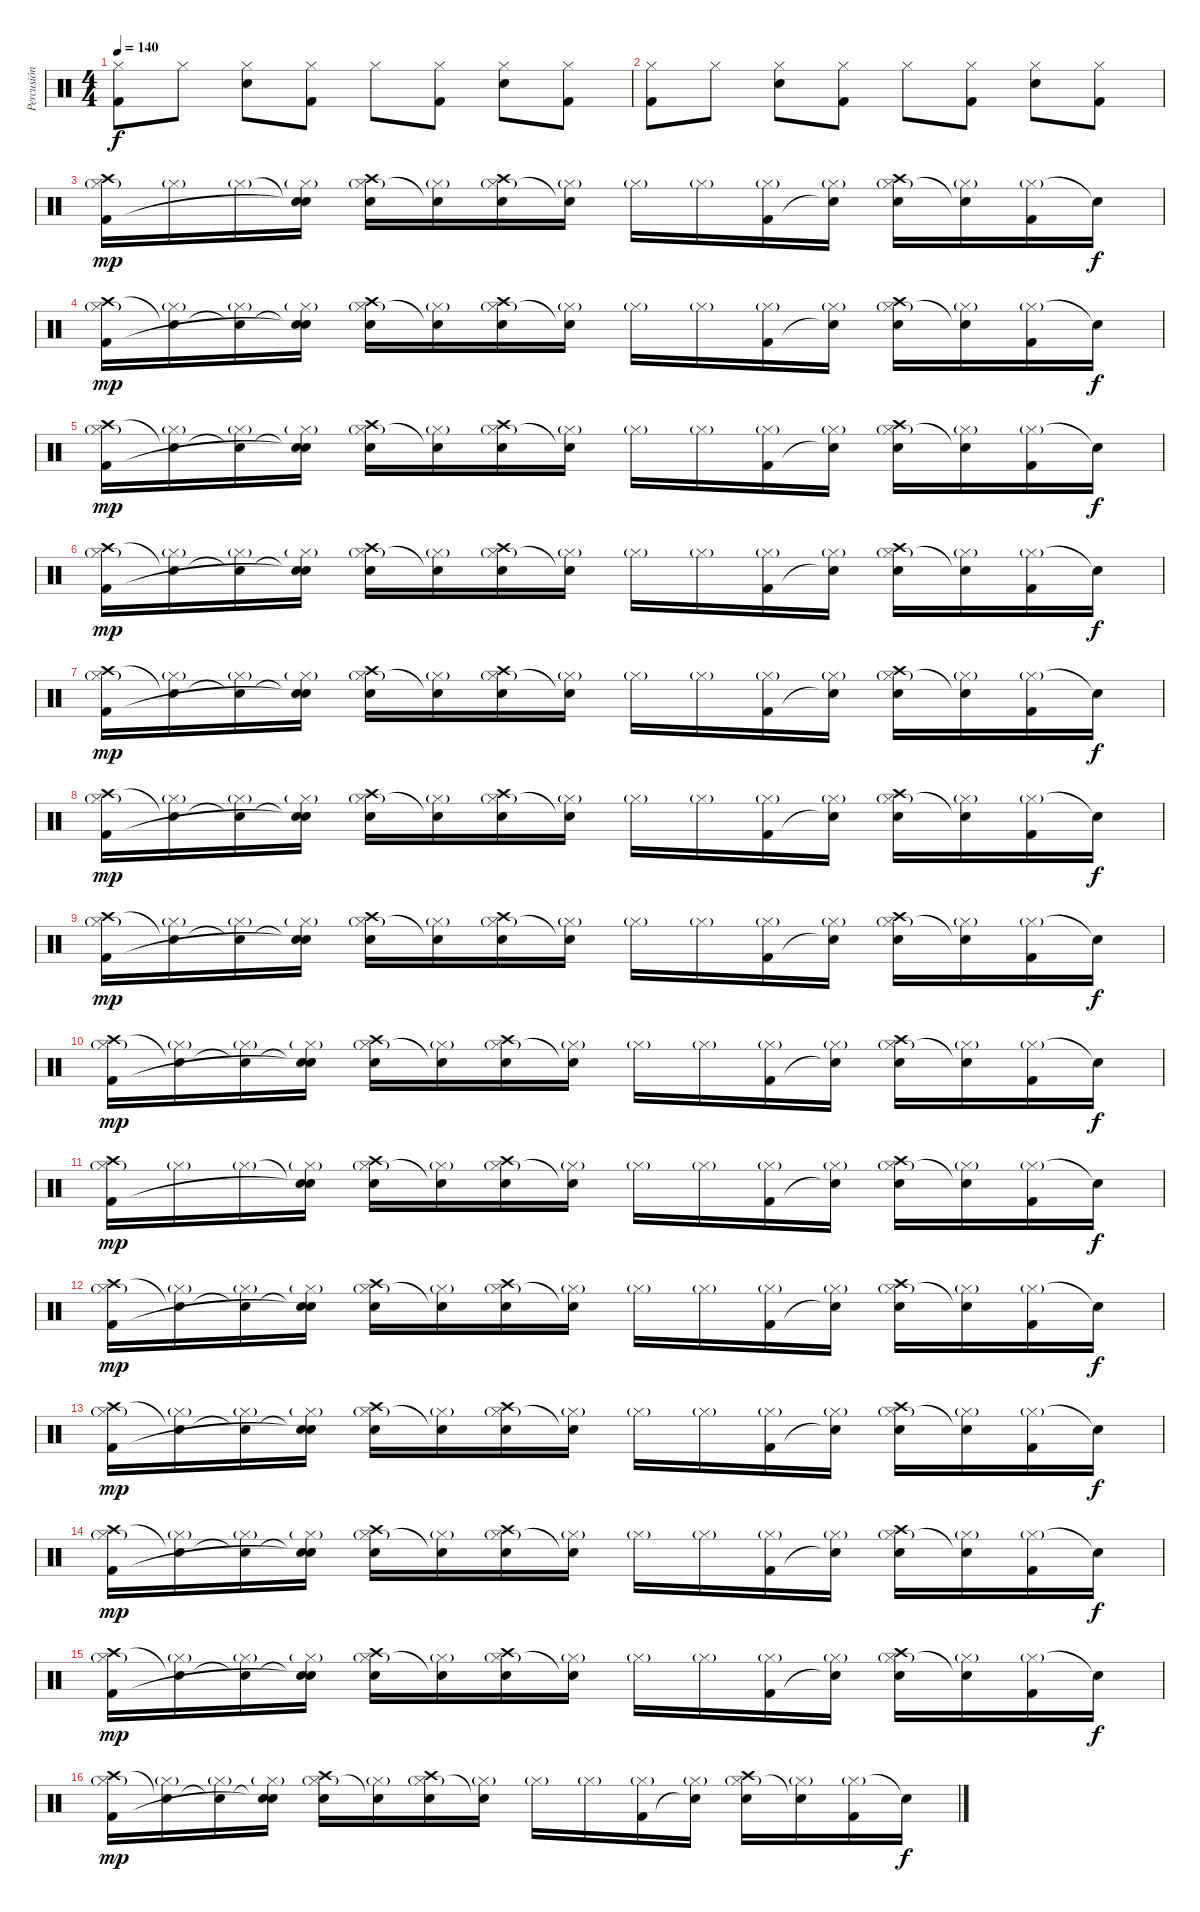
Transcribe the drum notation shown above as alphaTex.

\track ("Percusión" "Percusión") {instrument percussion}
\staff {score}
\articulation defaults
\ts (4 4)
\tempo 140
\clef neutral
\ks c
("Hi-Hat (closed)" "Kick (hit) 2").8{dy f} "Hi-Hat (closed)".8 ("Hi-Hat (closed)" "Electric Snare (hit)").8 ("Hi-Hat (closed)" "Kick (hit) 2").8 "Hi-Hat (closed)".8 ("Hi-Hat (closed)" "Kick (hit) 2").8 ("Hi-Hat (closed)" "Electric Snare (hit)").8 ("Hi-Hat (closed)" "Kick (hit) 2").8 |
("Hi-Hat (closed)" "Kick (hit) 2").8 "Hi-Hat (closed)".8 ("Hi-Hat (closed)" "Electric Snare (hit)").8 ("Hi-Hat (closed)" "Kick (hit) 2").8 "Hi-Hat (closed)".8 ("Hi-Hat (closed)" "Kick (hit) 2").8 ("Hi-Hat (closed)" "Electric Snare (hit)").8 ("Hi-Hat (closed)" "Kick (hit) 2").8 |
("Crash high (hit)" "Hi-Hat (closed)"{g} "Kick (hit) 2").16{dy mp} "Hi-Hat (closed)"{g}.16 "Hi-Hat (closed)"{g}.16 ("Snare (hit)"{t} "Hi-Hat (closed)"{g} "Snare (hit)"{t}).16 ("Crash high (hit)" "Hi-Hat (closed)"{g} "Electric Snare (hit)").16 ("Hi-Hat (closed)"{g} "Snare (hit)"{t}).16 ("Crash high (hit)" "Hi-Hat (closed)"{g} "Electric Snare (hit)").16 ("Hi-Hat (closed)"{g} "Snare (hit)"{t}).16 "Hi-Hat (closed)"{g}.16 "Hi-Hat (closed)"{g}.16 ("Hi-Hat (closed)"{g} "Kick (hit) 2").16 ("Hi-Hat (closed)"{g} "Snare (hit)"{t}).16 ("Crash high (hit)" "Hi-Hat (closed)"{g} "Electric Snare (hit)").16 ("Hi-Hat (closed)"{g} "Snare (hit)"{t}).16 ("Hi-Hat (closed)"{g} "Kick (hit) 2").16 "Snare (hit)"{t}.16{dy f} |
("Crash high (hit)" "Hi-Hat (closed)"{g} "Kick (hit) 2").16{dy mp} ("Snare (hit)"{t} "Hi-Hat (closed)"{g}).16 ("Snare (hit)"{t} "Hi-Hat (closed)"{g}).16 ("Snare (hit)"{t} "Hi-Hat (closed)"{g} "Snare (hit)"{t}).16 ("Crash high (hit)" "Hi-Hat (closed)"{g} "Electric Snare (hit)").16 ("Hi-Hat (closed)"{g} "Snare (hit)"{t}).16 ("Crash high (hit)" "Hi-Hat (closed)"{g} "Electric Snare (hit)").16 ("Hi-Hat (closed)"{g} "Snare (hit)"{t}).16 "Hi-Hat (closed)"{g}.16 "Hi-Hat (closed)"{g}.16 ("Hi-Hat (closed)"{g} "Kick (hit) 2").16 ("Hi-Hat (closed)"{g} "Snare (hit)"{t}).16 ("Crash high (hit)" "Hi-Hat (closed)"{g} "Electric Snare (hit)").16 ("Hi-Hat (closed)"{g} "Snare (hit)"{t}).16 ("Hi-Hat (closed)"{g} "Kick (hit) 2").16 "Snare (hit)"{t}.16{dy f} |
("Crash high (hit)" "Hi-Hat (closed)"{g} "Kick (hit) 2").16{dy mp} ("Snare (hit)"{t} "Hi-Hat (closed)"{g}).16 ("Snare (hit)"{t} "Hi-Hat (closed)"{g}).16 ("Snare (hit)"{t} "Hi-Hat (closed)"{g} "Snare (hit)"{t}).16 ("Crash high (hit)" "Hi-Hat (closed)"{g} "Electric Snare (hit)").16 ("Hi-Hat (closed)"{g} "Snare (hit)"{t}).16 ("Crash high (hit)" "Hi-Hat (closed)"{g} "Electric Snare (hit)").16 ("Hi-Hat (closed)"{g} "Snare (hit)"{t}).16 "Hi-Hat (closed)"{g}.16 "Hi-Hat (closed)"{g}.16 ("Hi-Hat (closed)"{g} "Kick (hit) 2").16 ("Hi-Hat (closed)"{g} "Snare (hit)"{t}).16 ("Crash high (hit)" "Hi-Hat (closed)"{g} "Electric Snare (hit)").16 ("Hi-Hat (closed)"{g} "Snare (hit)"{t}).16 ("Hi-Hat (closed)"{g} "Kick (hit) 2").16 "Snare (hit)"{t}.16{dy f} |
("Crash high (hit)" "Hi-Hat (closed)"{g} "Kick (hit) 2").16{dy mp} ("Snare (hit)"{t} "Hi-Hat (closed)"{g}).16 ("Snare (hit)"{t} "Hi-Hat (closed)"{g}).16 ("Snare (hit)"{t} "Hi-Hat (closed)"{g} "Snare (hit)"{t}).16 ("Crash high (hit)" "Hi-Hat (closed)"{g} "Electric Snare (hit)").16 ("Hi-Hat (closed)"{g} "Snare (hit)"{t}).16 ("Crash high (hit)" "Hi-Hat (closed)"{g} "Electric Snare (hit)").16 ("Hi-Hat (closed)"{g} "Snare (hit)"{t}).16 "Hi-Hat (closed)"{g}.16 "Hi-Hat (closed)"{g}.16 ("Hi-Hat (closed)"{g} "Kick (hit) 2").16 ("Hi-Hat (closed)"{g} "Snare (hit)"{t}).16 ("Crash high (hit)" "Hi-Hat (closed)"{g} "Electric Snare (hit)").16 ("Hi-Hat (closed)"{g} "Snare (hit)"{t}).16 ("Hi-Hat (closed)"{g} "Kick (hit) 2").16 "Snare (hit)"{t}.16{dy f} |
("Crash high (hit)" "Hi-Hat (closed)"{g} "Kick (hit) 2").16{dy mp} ("Snare (hit)"{t} "Hi-Hat (closed)"{g}).16 ("Snare (hit)"{t} "Hi-Hat (closed)"{g}).16 ("Snare (hit)"{t} "Hi-Hat (closed)"{g} "Snare (hit)"{t}).16 ("Crash high (hit)" "Hi-Hat (closed)"{g} "Electric Snare (hit)").16 ("Hi-Hat (closed)"{g} "Snare (hit)"{t}).16 ("Crash high (hit)" "Hi-Hat (closed)"{g} "Electric Snare (hit)").16 ("Hi-Hat (closed)"{g} "Snare (hit)"{t}).16 "Hi-Hat (closed)"{g}.16 "Hi-Hat (closed)"{g}.16 ("Hi-Hat (closed)"{g} "Kick (hit) 2").16 ("Hi-Hat (closed)"{g} "Snare (hit)"{t}).16 ("Crash high (hit)" "Hi-Hat (closed)"{g} "Electric Snare (hit)").16 ("Hi-Hat (closed)"{g} "Snare (hit)"{t}).16 ("Hi-Hat (closed)"{g} "Kick (hit) 2").16 "Snare (hit)"{t}.16{dy f} |
("Crash high (hit)" "Hi-Hat (closed)"{g} "Kick (hit) 2").16{dy mp} ("Snare (hit)"{t} "Hi-Hat (closed)"{g}).16 ("Snare (hit)"{t} "Hi-Hat (closed)"{g}).16 ("Snare (hit)"{t} "Hi-Hat (closed)"{g} "Snare (hit)"{t}).16 ("Crash high (hit)" "Hi-Hat (closed)"{g} "Electric Snare (hit)").16 ("Hi-Hat (closed)"{g} "Snare (hit)"{t}).16 ("Crash high (hit)" "Hi-Hat (closed)"{g} "Electric Snare (hit)").16 ("Hi-Hat (closed)"{g} "Snare (hit)"{t}).16 "Hi-Hat (closed)"{g}.16 "Hi-Hat (closed)"{g}.16 ("Hi-Hat (closed)"{g} "Kick (hit) 2").16 ("Hi-Hat (closed)"{g} "Snare (hit)"{t}).16 ("Crash high (hit)" "Hi-Hat (closed)"{g} "Electric Snare (hit)").16 ("Hi-Hat (closed)"{g} "Snare (hit)"{t}).16 ("Hi-Hat (closed)"{g} "Kick (hit) 2").16 "Snare (hit)"{t}.16{dy f} |
("Crash high (hit)" "Hi-Hat (closed)"{g} "Kick (hit) 2").16{dy mp} ("Snare (hit)"{t} "Hi-Hat (closed)"{g}).16 ("Snare (hit)"{t} "Hi-Hat (closed)"{g}).16 ("Snare (hit)"{t} "Hi-Hat (closed)"{g} "Snare (hit)"{t}).16 ("Crash high (hit)" "Hi-Hat (closed)"{g} "Electric Snare (hit)").16 ("Hi-Hat (closed)"{g} "Snare (hit)"{t}).16 ("Crash high (hit)" "Hi-Hat (closed)"{g} "Electric Snare (hit)").16 ("Hi-Hat (closed)"{g} "Snare (hit)"{t}).16 "Hi-Hat (closed)"{g}.16 "Hi-Hat (closed)"{g}.16 ("Hi-Hat (closed)"{g} "Kick (hit) 2").16 ("Hi-Hat (closed)"{g} "Snare (hit)"{t}).16 ("Crash high (hit)" "Hi-Hat (closed)"{g} "Electric Snare (hit)").16 ("Hi-Hat (closed)"{g} "Snare (hit)"{t}).16 ("Hi-Hat (closed)"{g} "Kick (hit) 2").16 "Snare (hit)"{t}.16{dy f} |
("Crash high (hit)" "Hi-Hat (closed)"{g} "Kick (hit) 2").16{dy mp} ("Snare (hit)"{t} "Hi-Hat (closed)"{g}).16 ("Snare (hit)"{t} "Hi-Hat (closed)"{g}).16 ("Snare (hit)"{t} "Hi-Hat (closed)"{g} "Snare (hit)"{t}).16 ("Crash high (hit)" "Hi-Hat (closed)"{g} "Electric Snare (hit)").16 ("Hi-Hat (closed)"{g} "Snare (hit)"{t}).16 ("Crash high (hit)" "Hi-Hat (closed)"{g} "Electric Snare (hit)").16 ("Hi-Hat (closed)"{g} "Snare (hit)"{t}).16 "Hi-Hat (closed)"{g}.16 "Hi-Hat (closed)"{g}.16 ("Hi-Hat (closed)"{g} "Kick (hit) 2").16 ("Hi-Hat (closed)"{g} "Snare (hit)"{t}).16 ("Crash high (hit)" "Hi-Hat (closed)"{g} "Electric Snare (hit)").16 ("Hi-Hat (closed)"{g} "Snare (hit)"{t}).16 ("Hi-Hat (closed)"{g} "Kick (hit) 2").16 "Snare (hit)"{t}.16{dy f} |
("Crash high (hit)" "Hi-Hat (closed)"{g} "Kick (hit) 2").16{dy mp} "Hi-Hat (closed)"{g}.16 "Hi-Hat (closed)"{g}.16 ("Snare (hit)"{t} "Hi-Hat (closed)"{g} "Snare (hit)"{t}).16 ("Crash high (hit)" "Hi-Hat (closed)"{g} "Electric Snare (hit)").16 ("Hi-Hat (closed)"{g} "Snare (hit)"{t}).16 ("Crash high (hit)" "Hi-Hat (closed)"{g} "Electric Snare (hit)").16 ("Hi-Hat (closed)"{g} "Snare (hit)"{t}).16 "Hi-Hat (closed)"{g}.16 "Hi-Hat (closed)"{g}.16 ("Hi-Hat (closed)"{g} "Kick (hit) 2").16 ("Hi-Hat (closed)"{g} "Snare (hit)"{t}).16 ("Crash high (hit)" "Hi-Hat (closed)"{g} "Electric Snare (hit)").16 ("Hi-Hat (closed)"{g} "Snare (hit)"{t}).16 ("Hi-Hat (closed)"{g} "Kick (hit) 2").16 "Snare (hit)"{t}.16{dy f} |
("Crash high (hit)" "Hi-Hat (closed)"{g} "Kick (hit) 2").16{dy mp} ("Snare (hit)"{t} "Hi-Hat (closed)"{g}).16 ("Snare (hit)"{t} "Hi-Hat (closed)"{g}).16 ("Snare (hit)"{t} "Hi-Hat (closed)"{g} "Snare (hit)"{t}).16 ("Crash high (hit)" "Hi-Hat (closed)"{g} "Electric Snare (hit)").16 ("Hi-Hat (closed)"{g} "Snare (hit)"{t}).16 ("Crash high (hit)" "Hi-Hat (closed)"{g} "Electric Snare (hit)").16 ("Hi-Hat (closed)"{g} "Snare (hit)"{t}).16 "Hi-Hat (closed)"{g}.16 "Hi-Hat (closed)"{g}.16 ("Hi-Hat (closed)"{g} "Kick (hit) 2").16 ("Hi-Hat (closed)"{g} "Snare (hit)"{t}).16 ("Crash high (hit)" "Hi-Hat (closed)"{g} "Electric Snare (hit)").16 ("Hi-Hat (closed)"{g} "Snare (hit)"{t}).16 ("Hi-Hat (closed)"{g} "Kick (hit) 2").16 "Snare (hit)"{t}.16{dy f} |
("Crash high (hit)" "Hi-Hat (closed)"{g} "Kick (hit) 2").16{dy mp} ("Snare (hit)"{t} "Hi-Hat (closed)"{g}).16 ("Snare (hit)"{t} "Hi-Hat (closed)"{g}).16 ("Snare (hit)"{t} "Hi-Hat (closed)"{g} "Snare (hit)"{t}).16 ("Crash high (hit)" "Hi-Hat (closed)"{g} "Electric Snare (hit)").16 ("Hi-Hat (closed)"{g} "Snare (hit)"{t}).16 ("Crash high (hit)" "Hi-Hat (closed)"{g} "Electric Snare (hit)").16 ("Hi-Hat (closed)"{g} "Snare (hit)"{t}).16 "Hi-Hat (closed)"{g}.16 "Hi-Hat (closed)"{g}.16 ("Hi-Hat (closed)"{g} "Kick (hit) 2").16 ("Hi-Hat (closed)"{g} "Snare (hit)"{t}).16 ("Crash high (hit)" "Hi-Hat (closed)"{g} "Electric Snare (hit)").16 ("Hi-Hat (closed)"{g} "Snare (hit)"{t}).16 ("Hi-Hat (closed)"{g} "Kick (hit) 2").16 "Snare (hit)"{t}.16{dy f} |
("Crash high (hit)" "Hi-Hat (closed)"{g} "Kick (hit) 2").16{dy mp} ("Snare (hit)"{t} "Hi-Hat (closed)"{g}).16 ("Snare (hit)"{t} "Hi-Hat (closed)"{g}).16 ("Snare (hit)"{t} "Hi-Hat (closed)"{g} "Snare (hit)"{t}).16 ("Crash high (hit)" "Hi-Hat (closed)"{g} "Electric Snare (hit)").16 ("Hi-Hat (closed)"{g} "Snare (hit)"{t}).16 ("Crash high (hit)" "Hi-Hat (closed)"{g} "Electric Snare (hit)").16 ("Hi-Hat (closed)"{g} "Snare (hit)"{t}).16 "Hi-Hat (closed)"{g}.16 "Hi-Hat (closed)"{g}.16 ("Hi-Hat (closed)"{g} "Kick (hit) 2").16 ("Hi-Hat (closed)"{g} "Snare (hit)"{t}).16 ("Crash high (hit)" "Hi-Hat (closed)"{g} "Electric Snare (hit)").16 ("Hi-Hat (closed)"{g} "Snare (hit)"{t}).16 ("Hi-Hat (closed)"{g} "Kick (hit) 2").16 "Snare (hit)"{t}.16{dy f} |
("Crash high (hit)" "Hi-Hat (closed)"{g} "Kick (hit) 2").16{dy mp} ("Snare (hit)"{t} "Hi-Hat (closed)"{g}).16 ("Snare (hit)"{t} "Hi-Hat (closed)"{g}).16 ("Snare (hit)"{t} "Hi-Hat (closed)"{g} "Snare (hit)"{t}).16 ("Crash high (hit)" "Hi-Hat (closed)"{g} "Electric Snare (hit)").16 ("Hi-Hat (closed)"{g} "Snare (hit)"{t}).16 ("Crash high (hit)" "Hi-Hat (closed)"{g} "Electric Snare (hit)").16 ("Hi-Hat (closed)"{g} "Snare (hit)"{t}).16 "Hi-Hat (closed)"{g}.16 "Hi-Hat (closed)"{g}.16 ("Hi-Hat (closed)"{g} "Kick (hit) 2").16 ("Hi-Hat (closed)"{g} "Snare (hit)"{t}).16 ("Crash high (hit)" "Hi-Hat (closed)"{g} "Electric Snare (hit)").16 ("Hi-Hat (closed)"{g} "Snare (hit)"{t}).16 ("Hi-Hat (closed)"{g} "Kick (hit) 2").16 "Snare (hit)"{t}.16{dy f} |
("Crash high (hit)" "Hi-Hat (closed)"{g} "Kick (hit) 2").16{dy mp} ("Snare (hit)"{t} "Hi-Hat (closed)"{g}).16 ("Snare (hit)"{t} "Hi-Hat (closed)"{g}).16 ("Snare (hit)"{t} "Hi-Hat (closed)"{g} "Snare (hit)"{t}).16 ("Crash high (hit)" "Hi-Hat (closed)"{g} "Electric Snare (hit)").16 ("Hi-Hat (closed)"{g} "Snare (hit)"{t}).16 ("Crash high (hit)" "Hi-Hat (closed)"{g} "Electric Snare (hit)").16 ("Hi-Hat (closed)"{g} "Snare (hit)"{t}).16 "Hi-Hat (closed)"{g}.16 "Hi-Hat (closed)"{g}.16 ("Hi-Hat (closed)"{g} "Kick (hit) 2").16 ("Hi-Hat (closed)"{g} "Snare (hit)"{t}).16 ("Crash high (hit)" "Hi-Hat (closed)"{g} "Electric Snare (hit)").16 ("Hi-Hat (closed)"{g} "Snare (hit)"{t}).16 ("Hi-Hat (closed)"{g} "Kick (hit) 2").16 "Snare (hit)"{t}.16{dy f}
